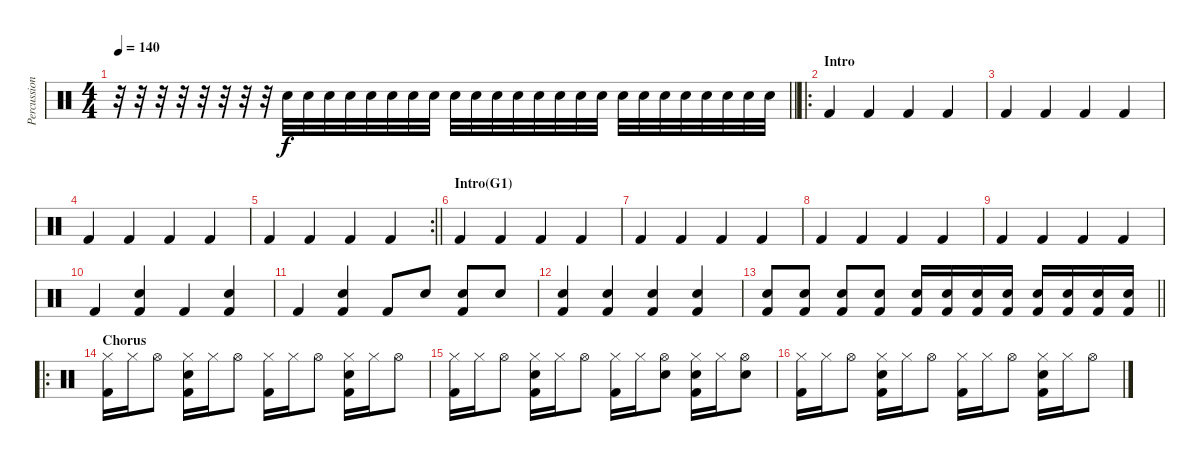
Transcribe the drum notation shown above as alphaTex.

\track ("Percussion" "Percussion") {instrument percussion}
\staff {score}
\articulation defaults
\ts (4 4)
\tempo 140
\clef neutral
\barLineRight lightlight
\ks c
r.32{dy f} r.32 r.32 r.32 r.32 r.32 r.32 r.32{volume 5} "Electric Snare (hit)".32{volume 13} "Electric Snare (hit)".32 "Electric Snare (hit)".32 "Electric Snare (hit)".32 "Electric Snare (hit)".32 "Electric Snare (hit)".32 "Electric Snare (hit)".32 "Electric Snare (hit)".32 "Electric Snare (hit)".32 "Electric Snare (hit)".32 "Electric Snare (hit)".32 "Electric Snare (hit)".32 "Electric Snare (hit)".32 "Electric Snare (hit)".32 "Electric Snare (hit)".32 "Electric Snare (hit)".32 "Electric Snare (hit)".32 "Electric Snare (hit)".32 "Electric Snare (hit)".32 "Electric Snare (hit)".32 "Electric Snare (hit)".32 "Electric Snare (hit)".32 "Electric Snare (hit)".32 "Electric Snare (hit)".32 |
\ro
\section ("" "Intro")
"Kick (hit) 2".4 "Kick (hit) 2".4 "Kick (hit) 2".4 "Kick (hit) 2".4 |
"Kick (hit) 2".4 "Kick (hit) 2".4 "Kick (hit) 2".4 "Kick (hit) 2".4 |
"Kick (hit) 2".4 "Kick (hit) 2".4 "Kick (hit) 2".4 "Kick (hit) 2".4 |
\rc 2
\barLineRight lightlight "Kick (hit) 2".4 "Kick (hit) 2".4 "Kick (hit) 2".4 "Kick (hit) 2".4
|
\section ("" "Intro(G1)")
"Kick (hit) 2".4 "Kick (hit) 2".4 "Kick (hit) 2".4 "Kick (hit) 2".4 |
"Kick (hit) 2".4 "Kick (hit) 2".4 "Kick (hit) 2".4 "Kick (hit) 2".4 |
"Kick (hit) 2".4 "Kick (hit) 2".4 "Kick (hit) 2".4 "Kick (hit) 2".4 |
"Kick (hit) 2".4 "Kick (hit) 2".4 "Kick (hit) 2".4 "Kick (hit) 2".4 |
"Kick (hit) 2".4 ("Electric Snare (hit)" "Kick (hit) 2").4 "Kick (hit) 2".4 ("Electric Snare (hit)" "Kick (hit) 2").4 |
"Kick (hit) 2".4 ("Electric Snare (hit)" "Kick (hit) 2").4 "Kick (hit) 2".8 "Electric Snare (hit)".8 ("Electric Snare (hit)" "Kick (hit) 2").8 "Electric Snare (hit)".8 |
("Electric Snare (hit)" "Kick (hit) 2").4 ("Electric Snare (hit)" "Kick (hit) 2").4 ("Electric Snare (hit)" "Kick (hit) 2").4 ("Electric Snare (hit)" "Kick (hit) 2").4 |
\barLineRight lightlight
("Electric Snare (hit)" "Kick (hit) 2").8 ("Electric Snare (hit)" "Kick (hit) 2").8 ("Electric Snare (hit)" "Kick (hit) 2").8 ("Electric Snare (hit)" "Kick (hit) 2").8 ("Electric Snare (hit)" "Kick (hit) 2").16 ("Electric Snare (hit)" "Kick (hit) 2").16 ("Electric Snare (hit)" "Kick (hit) 2").16 ("Electric Snare (hit)" "Kick (hit) 2").16 ("Electric Snare (hit)" "Kick (hit) 2").16 ("Electric Snare (hit)" "Kick (hit) 2").16 ("Electric Snare (hit)" "Kick (hit) 2").16 ("Electric Snare (hit)" "Kick (hit) 2").16 |
\ro
\section ("" "Chorus")
("Hi-Hat (closed)" "Kick (hit) 2").16 "Hi-Hat (closed)".16 "Hi-Hat (open)".8 ("Hi-Hat (closed)" "Electric Snare (hit)" "Kick (hit) 2").16 "Hi-Hat (closed)".16 "Hi-Hat (open)".8 ("Hi-Hat (closed)" "Kick (hit) 2").16 "Hi-Hat (closed)".16 "Hi-Hat (open)".8 ("Hi-Hat (closed)" "Electric Snare (hit)" "Kick (hit) 2").16 "Hi-Hat (closed)".16 "Hi-Hat (open)".8 |
("Hi-Hat (closed)" "Kick (hit) 2").16 "Hi-Hat (closed)".16 "Hi-Hat (open)".8 ("Hi-Hat (closed)" "Electric Snare (hit)" "Kick (hit) 2").16 "Hi-Hat (closed)".16 "Hi-Hat (open)".8 ("Hi-Hat (closed)" "Kick (hit) 2").16 "Hi-Hat (closed)".16 ("Hi-Hat (open)" "Electric Snare (hit)").8 ("Hi-Hat (closed)" "Electric Snare (hit)" "Kick (hit) 2").16 "Hi-Hat (closed)".16 ("Hi-Hat (open)" "Electric Snare (hit)").8 |
("Hi-Hat (closed)" "Kick (hit) 2").16 "Hi-Hat (closed)".16 "Hi-Hat (open)".8 ("Hi-Hat (closed)" "Electric Snare (hit)" "Kick (hit) 2").16 "Hi-Hat (closed)".16 "Hi-Hat (open)".8 ("Hi-Hat (closed)" "Kick (hit) 2").16 "Hi-Hat (closed)".16 "Hi-Hat (open)".8 ("Hi-Hat (closed)" "Electric Snare (hit)" "Kick (hit) 2").16 "Hi-Hat (closed)".16 "Hi-Hat (open)".8
